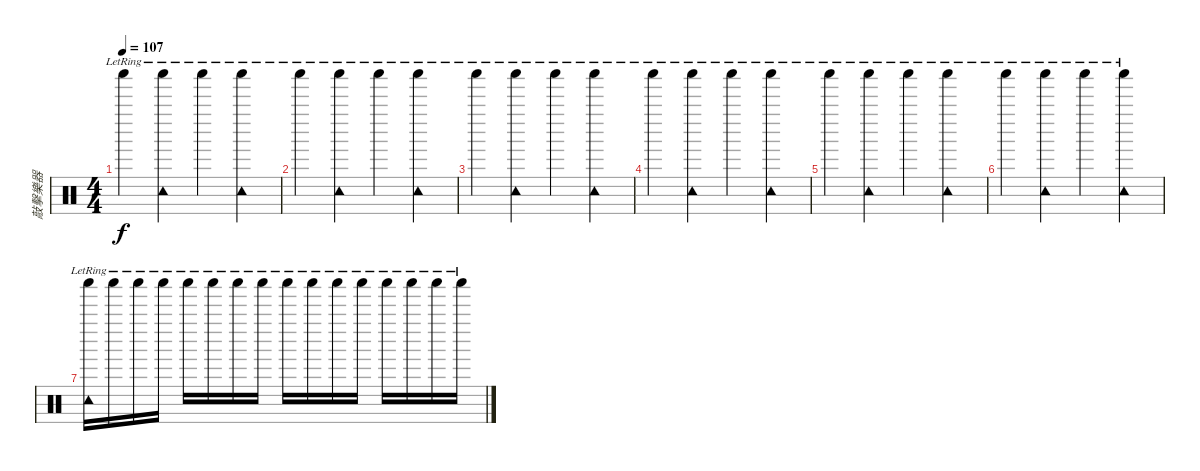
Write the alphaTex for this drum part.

\track ("敲擊樂器" "敲擊樂器") {instrument percussion}
\staff {score}
\articulation defaults
\ts (4 4)
\tempo 107
\clef neutral
\ks c "Shaker (hit)"{lr}.4{dy f}
("Tambourine (hit)"{lr} "Shaker (hit)"{lr}).4 "Shaker (hit)"{lr}.4 ("Tambourine (hit)"{lr} "Shaker (hit)"{lr}).4 |
"Shaker (hit)"{lr}.4 ("Tambourine (hit)"{lr} "Shaker (hit)"{lr}).4 "Shaker (hit)"{lr}.4 ("Tambourine (hit)"{lr} "Shaker (hit)"{lr}).4 |
"Shaker (hit)"{lr}.4 ("Tambourine (hit)"{lr} "Shaker (hit)"{lr}).4 "Shaker (hit)"{lr}.4 ("Tambourine (hit)"{lr} "Shaker (hit)"{lr}).4 |
"Shaker (hit)"{lr}.4 ("Tambourine (hit)"{lr} "Shaker (hit)"{lr}).4 "Shaker (hit)"{lr}.4 ("Tambourine (hit)"{lr} "Shaker (hit)"{lr}).4 |
"Shaker (hit)"{lr}.4 ("Tambourine (hit)"{lr} "Shaker (hit)"{lr}).4 "Shaker (hit)"{lr}.4 ("Tambourine (hit)"{lr} "Shaker (hit)"{lr}).4 |
"Shaker (hit)"{lr}.4 ("Tambourine (hit)"{lr} "Shaker (hit)"{lr}).4 "Shaker (hit)"{lr}.4 ("Tambourine (hit)"{lr} "Shaker (hit)"{lr}).4 |
("Tambourine (hit)"{lr} "Shaker (hit)"{lr}).16{volume 4} "Shaker (hit)"{lr}.16 "Shaker (hit)"{lr}.16 "Shaker (hit)"{lr}.16 "Shaker (hit)"{lr}.16 "Shaker (hit)"{lr}.16 "Shaker (hit)"{lr}.16 "Shaker (hit)"{lr}.16 "Shaker (hit)"{lr}.16 "Shaker (hit)"{lr}.16 "Shaker (hit)"{lr}.16 "Shaker (hit)"{lr}.16 "Shaker (hit)"{lr}.16 "Shaker (hit)"{lr}.16 "Shaker (hit)"{lr}.16 "Shaker (hit)"{lr}.16
